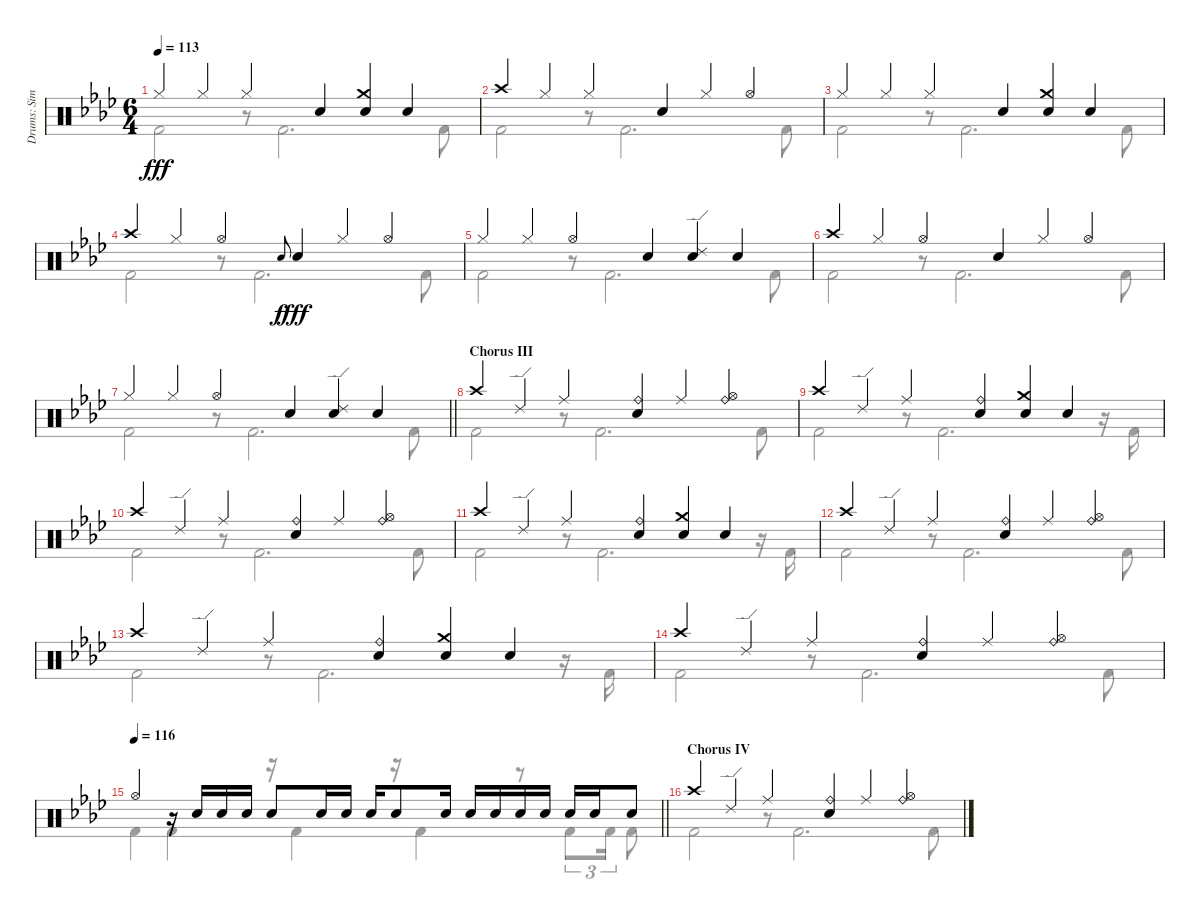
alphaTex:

\track ("Drums: Simon" "Drums: Sim") {instrument percussion}
\staff {score}
\articulation defaults
\voice
\ts (6 4)
\tempo 113
\clef neutral
\ks ab "Hi-Hat (closed)".4{dy fff} "Hi-Hat (closed)".4 "Hi-Hat (closed)".4 "Snare (hit) 2".4
("Crash medium (hit)" "Snare (hit) 2").4 "Snare (hit) 2".4 |
"Crash high (hit)".4 "Hi-Hat (closed)".4 "Hi-Hat (closed)".4 "Electric Snare (hit)".4 "Hi-Hat (closed)".4 "Hi-Hat (open)".4 |
"Hi-Hat (closed)".4 "Hi-Hat (closed)".4 "Hi-Hat (closed)".4 "Snare (hit) 2".4 ("Crash medium (hit)" "Snare (hit) 2").4 "Snare (hit) 2".4 |
"Crash high (hit)".4 "Hi-Hat (closed)".4 "Hi-Hat (open)".4 "Electric Snare (hit)".8{gr onbeat dy f} "Snare (hit) 2".4{dy fff} "Hi-Hat (closed)".4 "Hi-Hat (open)".4 |
"Hi-Hat (closed)".4 "Hi-Hat (closed)".4 "Hi-Hat (open)".4 "Snare (hit) 2".4 ("Ride (edge) 2" "Electric Snare (hit)").4 "Snare (hit) 2".4 |
"Crash high (hit)".4 "Hi-Hat (closed)".4 "Hi-Hat (open)".4 "Electric Snare (hit)".4 "Hi-Hat (closed)".4 "Hi-Hat (open)".4 |
\barLineRight lightlight "Hi-Hat (closed)".4 "Hi-Hat (closed)".4 "Hi-Hat (open)".4 "Snare (hit) 2".4
("Ride (edge) 2" "Electric Snare (hit)").4 "Snare (hit) 2".4 |
\section ("" "Chorus III")
"Crash high (hit)".4 "Ride (edge) 2".4 "Ride (middle)".4 ("Ride (bell)" "Snare (hit) 2").4 "Ride (middle)".4 ("Ride (bell)" "Hi-Hat (open)").4 |
"Crash high (hit)".4 "Ride (edge) 2".4 "Ride (middle)".4 ("Ride (bell)" "Snare (hit) 2").4 ("Crash medium (hit)" "Snare (hit) 2").4 "Snare (hit) 2".4 |
"Crash high (hit)".4 "Ride (edge) 2".4 "Ride (middle)".4 ("Ride (bell)" "Snare (hit) 2").4 "Ride (middle)".4 ("Ride (bell)" "Hi-Hat (open)").4 |
"Crash high (hit)".4 "Ride (edge) 2".4 "Ride (middle)".4 ("Ride (bell)" "Snare (hit) 2").4 ("Crash medium (hit)" "Snare (hit) 2").4 "Snare (hit) 2".4 |
"Crash high (hit)".4 "Ride (edge) 2".4 "Ride (middle)".4 ("Ride (bell)" "Snare (hit) 2").4 "Ride (middle)".4 ("Ride (bell)" "Hi-Hat (open)").4 |
"Crash high (hit)".4 "Ride (edge) 2".4 "Ride (middle)".4 ("Ride (bell)" "Snare (hit) 2").4 ("Crash medium (hit)" "Snare (hit) 2").4 "Snare (hit) 2".4 |
"Crash high (hit)".4 "Ride (edge) 2".4 "Ride (middle)".4 ("Ride (bell)" "Snare (hit) 2").4 "Ride (middle)".4 ("Ride (bell)" "Hi-Hat (open)").4 |
\tempo 116
\barLineRight lightlight "Hi-Hat (open)".4
r.16 "Electric Snare (hit)".16 "Electric Snare (hit)".16 "Electric Snare (hit)".16 "Electric Snare (hit)".8 "Electric Snare (hit)".16 "Electric Snare (hit)".16 "Electric Snare (hit)".16 "Electric Snare (hit)".8 "Electric Snare (hit)".16 "Electric Snare (hit)".16 "Electric Snare (hit)".16 "Electric Snare (hit)".16 "Electric Snare (hit)".16 "Electric Snare (hit)".16 "Electric Snare (hit)".16 "Electric Snare (hit)".8 |
\section ("" "Chorus IV")
"Crash high (hit)".4 "Ride (edge) 2".4 "Ride (middle)".4 ("Ride (bell)" "Snare (hit) 2").4 "Ride (middle)".4 ("Ride (bell)" "Hi-Hat (open)").4
\voice
\clef neutral
\ottava regular
\simile none
\ks ab "Kick (hit) 2".2{dy fff}
r.8 "Kick (hit) 2".2{d} "Kick (hit) 2".8 |
"Kick (hit) 2".2 r.8 "Kick (hit) 2".2{d} "Kick (hit) 2".8 |
"Kick (hit) 2".2 r.8 "Kick (hit) 2".2{d} "Kick (hit) 2".8 |
"Kick (hit) 2".2 r.8 "Kick (hit) 2".2{d} "Kick (hit) 2".8 |
"Kick (hit) 2".2 r.8 "Kick (hit) 2".2{d} "Kick (hit) 2".8 |
"Kick (hit) 2".2 r.8 "Kick (hit) 2".2{d} "Kick (hit) 2".8 |
\barLineRight lightlight "Kick (hit) 2".2
r.8 "Kick (hit) 2".2{d} "Kick (hit) 2".8 |
"Kick (hit) 2".2 r.8 "Kick (hit) 2".2{d} "Kick (hit) 2".8 |
"Kick (hit) 2".2 r.8 "Kick (hit) 2".2{d} r.16 "Kick (hit) 2".16 |
"Kick (hit) 2".2 r.8 "Kick (hit) 2".2{d} "Kick (hit) 2".8 |
"Kick (hit) 2".2 r.8 "Kick (hit) 2".2{d} r.16 "Kick (hit) 2".16 |
"Kick (hit) 2".2 r.8 "Kick (hit) 2".2{d} "Kick (hit) 2".8 |
"Kick (hit) 2".2 r.8 "Kick (hit) 2".2{d} r.16 "Kick (hit) 2".16 |
"Kick (hit) 2".2 r.8 "Kick (hit) 2".2{d} "Kick (hit) 2".8 |
\barLineRight lightlight "Kick (hit) 2".4 "Kick (hit) 2".4
r.16 "Kick (hit) 2".4 r.16 "Kick (hit) 2".4 r.8 "Kick (hit) 2".8{tu (3 2)} "Kick (hit) 2".16{tu (3 2)} "Kick (hit) 2".8 |
"Kick (hit) 2".2 r.8 "Kick (hit) 2".2{d} "Kick (hit) 2".8
